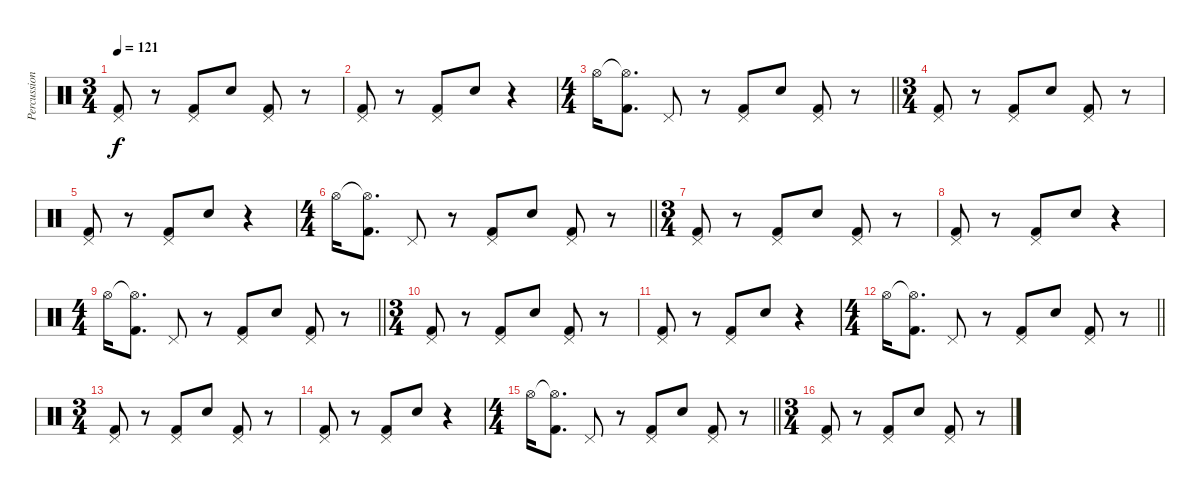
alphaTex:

\track ("Percussion" "Percussion") {instrument percussion}
\staff {score}
\articulation defaults
\ts (3 4)
\tempo 121
\clef neutral
\ks c
("Pedal Hi-Hat (hit)" "Kick (hit) 2").8{dy f} r.8 ("Pedal Hi-Hat (hit)" "Kick (hit) 2").8 "Electric Snare (hit)".8 ("Pedal Hi-Hat (hit)" "Kick (hit) 2").8 r.8 |
("Pedal Hi-Hat (hit)" "Kick (hit) 2").8 r.8 ("Pedal Hi-Hat (hit)" "Kick (hit) 2").8 "Electric Snare (hit)".8 r.4 |
\ts (4 4)
\barLineRight lightlight "Hi-Hat (open)".16
("Hi-Hat (open)"{t} "Kick (hit) 2").8{d} "Pedal Hi-Hat (hit)".8 r.8 ("Pedal Hi-Hat (hit)" "Kick (hit) 2").8 "Electric Snare (hit)".8 ("Pedal Hi-Hat (hit)" "Kick (hit) 2").8 r.8 |
\ts (3 4)
("Pedal Hi-Hat (hit)" "Kick (hit) 2").8 r.8 ("Pedal Hi-Hat (hit)" "Kick (hit) 2").8 "Electric Snare (hit)".8 ("Pedal Hi-Hat (hit)" "Kick (hit) 2").8 r.8 |
("Pedal Hi-Hat (hit)" "Kick (hit) 2").8 r.8 ("Pedal Hi-Hat (hit)" "Kick (hit) 2").8 "Electric Snare (hit)".8 r.4 |
\ts (4 4)
\barLineRight lightlight "Hi-Hat (open)".16
("Hi-Hat (open)"{t} "Kick (hit) 2").8{d} "Pedal Hi-Hat (hit)".8 r.8 ("Pedal Hi-Hat (hit)" "Kick (hit) 2").8 "Electric Snare (hit)".8 ("Pedal Hi-Hat (hit)" "Kick (hit) 2").8 r.8 |
\ts (3 4)
("Pedal Hi-Hat (hit)" "Kick (hit) 2").8 r.8 ("Pedal Hi-Hat (hit)" "Kick (hit) 2").8 "Electric Snare (hit)".8 ("Pedal Hi-Hat (hit)" "Kick (hit) 2").8 r.8 |
("Pedal Hi-Hat (hit)" "Kick (hit) 2").8 r.8 ("Pedal Hi-Hat (hit)" "Kick (hit) 2").8 "Electric Snare (hit)".8 r.4 |
\ts (4 4)
\barLineRight lightlight "Hi-Hat (open)".16
("Hi-Hat (open)"{t} "Kick (hit) 2").8{d} "Pedal Hi-Hat (hit)".8 r.8 ("Pedal Hi-Hat (hit)" "Kick (hit) 2").8 "Electric Snare (hit)".8 ("Pedal Hi-Hat (hit)" "Kick (hit) 2").8 r.8 |
\ts (3 4)
("Pedal Hi-Hat (hit)" "Kick (hit) 2").8 r.8 ("Pedal Hi-Hat (hit)" "Kick (hit) 2").8 "Electric Snare (hit)".8 ("Pedal Hi-Hat (hit)" "Kick (hit) 2").8 r.8 |
("Pedal Hi-Hat (hit)" "Kick (hit) 2").8 r.8 ("Pedal Hi-Hat (hit)" "Kick (hit) 2").8 "Electric Snare (hit)".8 r.4 |
\ts (4 4)
\barLineRight lightlight "Hi-Hat (open)".16
("Hi-Hat (open)"{t} "Kick (hit) 2").8{d} "Pedal Hi-Hat (hit)".8 r.8 ("Pedal Hi-Hat (hit)" "Kick (hit) 2").8 "Electric Snare (hit)".8 ("Pedal Hi-Hat (hit)" "Kick (hit) 2").8 r.8 |
\ts (3 4)
("Pedal Hi-Hat (hit)" "Kick (hit) 2").8 r.8 ("Pedal Hi-Hat (hit)" "Kick (hit) 2").8 "Electric Snare (hit)".8 ("Pedal Hi-Hat (hit)" "Kick (hit) 2").8 r.8 |
("Pedal Hi-Hat (hit)" "Kick (hit) 2").8 r.8 ("Pedal Hi-Hat (hit)" "Kick (hit) 2").8 "Electric Snare (hit)".8 r.4 |
\ts (4 4)
\barLineRight lightlight "Hi-Hat (open)".16
("Hi-Hat (open)"{t} "Kick (hit) 2").8{d} "Pedal Hi-Hat (hit)".8 r.8 ("Pedal Hi-Hat (hit)" "Kick (hit) 2").8 "Electric Snare (hit)".8 ("Pedal Hi-Hat (hit)" "Kick (hit) 2").8 r.8 |
\ts (3 4)
("Pedal Hi-Hat (hit)" "Kick (hit) 2").8 r.8 ("Pedal Hi-Hat (hit)" "Kick (hit) 2").8 "Electric Snare (hit)".8 ("Pedal Hi-Hat (hit)" "Kick (hit) 2").8 r.8
